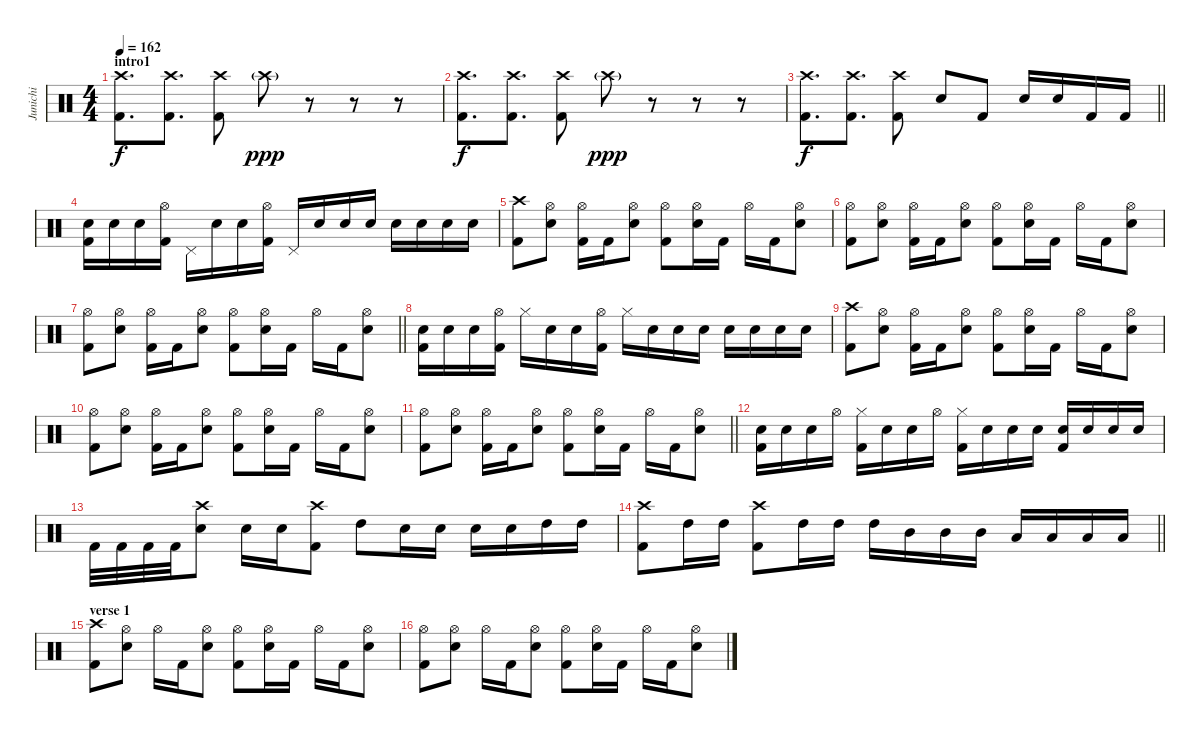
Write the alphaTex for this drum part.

\track ("Junichi" "Junichi") {instrument percussion}
\staff {score}
\articulation defaults
\ts (4 4)
\section ("" "intro1")
\tempo 162
\clef neutral
\ks c
("Crash high (hit)" "Kick (hit) 2").8{d dy f} ("Crash high (hit)" "Kick (hit) 2").8{d} ("Crash high (hit)" "Kick (hit) 2").8 "Crash high (hit)"{g}.8{dy ppp} r.8 r.8 r.8 |
("Crash high (hit)" "Kick (hit) 2").8{d dy f} ("Crash high (hit)" "Kick (hit) 2").8{d} ("Crash high (hit)" "Kick (hit) 2").8 "Crash high (hit)"{g}.8{dy ppp} r.8 r.8 r.8 |
\barLineRight lightlight
("Crash high (hit)" "Kick (hit) 2").8{d dy f} ("Crash high (hit)" "Kick (hit) 2").8{d} ("Crash high (hit)" "Kick (hit) 2").8 "Electric Snare (hit)".8 "Kick (hit) 2".8 "Electric Snare (hit)".16 "Electric Snare (hit)".16 "Kick (hit) 2".16 "Kick (hit) 2".16 |
("Electric Snare (hit)" "Kick (hit) 2").16 "Electric Snare (hit)".16 "Electric Snare (hit)".16 ("Hi-Hat (open)" "Kick (hit) 2").16 "Pedal Hi-Hat (hit)".16 "Electric Snare (hit)".16 "Electric Snare (hit)".16 ("Hi-Hat (open)" "Kick (hit) 2").16 "Pedal Hi-Hat (hit)".16 "Electric Snare (hit)".16 "Electric Snare (hit)".16 "Electric Snare (hit)".16 "Electric Snare (hit)".16 "Electric Snare (hit)".16 "Electric Snare (hit)".16 "Electric Snare (hit)".16 |
("Crash high (hit)" "Kick (hit) 2").8 ("Hi-Hat (open)" "Electric Snare (hit)").8 ("Hi-Hat (open)" "Kick (hit) 2").16 "Kick (hit) 2".16 ("Hi-Hat (open)" "Electric Snare (hit)").8 ("Hi-Hat (open)" "Kick (hit) 2").8 ("Hi-Hat (open)" "Electric Snare (hit)").16 "Kick (hit) 2".16 "Hi-Hat (open)".16 "Kick (hit) 2".16 ("Hi-Hat (open)" "Electric Snare (hit)").8 |
("Hi-Hat (open)" "Kick (hit) 2").8 ("Hi-Hat (open)" "Electric Snare (hit)").8 ("Hi-Hat (open)" "Kick (hit) 2").16 "Kick (hit) 2".16 ("Hi-Hat (open)" "Electric Snare (hit)").8 ("Hi-Hat (open)" "Kick (hit) 2").8 ("Hi-Hat (open)" "Electric Snare (hit)").16 "Kick (hit) 2".16 "Hi-Hat (open)".16 "Kick (hit) 2".16 ("Hi-Hat (open)" "Electric Snare (hit)").8 |
\barLineRight lightlight
("Hi-Hat (open)" "Kick (hit) 2").8 ("Hi-Hat (open)" "Electric Snare (hit)").8 ("Hi-Hat (open)" "Kick (hit) 2").16 "Kick (hit) 2".16 ("Hi-Hat (open)" "Electric Snare (hit)").8 ("Hi-Hat (open)" "Kick (hit) 2").8 ("Hi-Hat (open)" "Electric Snare (hit)").16 "Kick (hit) 2".16 "Hi-Hat (open)".16 "Kick (hit) 2".16 ("Hi-Hat (open)" "Electric Snare (hit)").8 |
("Electric Snare (hit)" "Kick (hit) 2").16 "Electric Snare (hit)".16 "Electric Snare (hit)".16 ("Hi-Hat (open)" "Kick (hit) 2").16 "Hi-Hat (closed)".16 "Electric Snare (hit)".16 "Electric Snare (hit)".16 ("Hi-Hat (open)" "Kick (hit) 2").16 "Hi-Hat (closed)".16 "Electric Snare (hit)".16 "Electric Snare (hit)".16 "Electric Snare (hit)".16 "Electric Snare (hit)".16 "Electric Snare (hit)".16 "Electric Snare (hit)".16 "Electric Snare (hit)".16 |
("Crash high (hit)" "Kick (hit) 2").8 ("Hi-Hat (open)" "Electric Snare (hit)").8 ("Hi-Hat (open)" "Kick (hit) 2").16 "Kick (hit) 2".16 ("Hi-Hat (open)" "Electric Snare (hit)").8 ("Hi-Hat (open)" "Kick (hit) 2").8 ("Hi-Hat (open)" "Electric Snare (hit)").16 "Kick (hit) 2".16 "Hi-Hat (open)".16 "Kick (hit) 2".16 ("Hi-Hat (open)" "Electric Snare (hit)").8 |
("Hi-Hat (open)" "Kick (hit) 2").8 ("Hi-Hat (open)" "Electric Snare (hit)").8 ("Hi-Hat (open)" "Kick (hit) 2").16 "Kick (hit) 2".16 ("Hi-Hat (open)" "Electric Snare (hit)").8 ("Hi-Hat (open)" "Kick (hit) 2").8 ("Hi-Hat (open)" "Electric Snare (hit)").16 "Kick (hit) 2".16 "Hi-Hat (open)".16 "Kick (hit) 2".16 ("Hi-Hat (open)" "Electric Snare (hit)").8 |
\barLineRight lightlight
("Hi-Hat (open)" "Kick (hit) 2").8 ("Hi-Hat (open)" "Electric Snare (hit)").8 ("Hi-Hat (open)" "Kick (hit) 2").16 "Kick (hit) 2".16 ("Hi-Hat (open)" "Electric Snare (hit)").8 ("Hi-Hat (open)" "Kick (hit) 2").8 ("Hi-Hat (open)" "Electric Snare (hit)").16 "Kick (hit) 2".16 "Hi-Hat (open)".16 "Kick (hit) 2".16 ("Hi-Hat (open)" "Electric Snare (hit)").8 |
("Electric Snare (hit)" "Kick (hit) 2").16 "Electric Snare (hit)".16 "Electric Snare (hit)".16 "Hi-Hat (open)".16 ("Hi-Hat (closed)" "Kick (hit) 2").16 "Electric Snare (hit)".16 "Electric Snare (hit)".16 "Hi-Hat (open)".16 ("Hi-Hat (closed)" "Kick (hit) 2").16 "Electric Snare (hit)".16 "Electric Snare (hit)".16 "Electric Snare (hit)".16 ("Electric Snare (hit)" "Kick (hit) 2").16 "Electric Snare (hit)".16 "Electric Snare (hit)".16 "Electric Snare (hit)".16 |
"Kick (hit) 2".32 "Kick (hit) 2".32 "Kick (hit) 2".32 "Kick (hit) 2".32 ("Crash high (hit)" "Electric Snare (hit)").8 "Electric Snare (hit)".16 "Electric Snare (hit)".16 ("Crash high (hit)" "Kick (hit) 2").8 "High Tom (hit)".8 "Electric Snare (hit)".16 "Electric Snare (hit)".16 "Electric Snare (hit)".16 "Electric Snare (hit)".16 "High Tom (hit)".16 "High Tom (hit)".16 |
\barLineRight lightlight
("Crash high (hit)" "Kick (hit) 2").8 "High Tom (hit)".16 "High Tom (hit)".16 ("Crash high (hit)" "Kick (hit) 2").8 "High Tom (hit)".16 "High Tom (hit)".16 "High Tom (hit)".16 "Mid Tom (hit)".16 "Mid Tom (hit)".16 "Mid Tom (hit)".16 "Low Tom (hit)".16 "Low Tom (hit)".16 "Low Tom (hit)".16 "Low Tom (hit)".16 |
\section ("" "verse 1")
("Crash high (hit)" "Kick (hit) 2").8 ("Hi-Hat (open)" "Electric Snare (hit)").8 "Hi-Hat (open)".16 "Kick (hit) 2".16 ("Hi-Hat (open)" "Electric Snare (hit)").8 ("Hi-Hat (open)" "Kick (hit) 2").8 ("Hi-Hat (open)" "Electric Snare (hit)").16 "Kick (hit) 2".16 "Hi-Hat (open)".16 "Kick (hit) 2".16 ("Hi-Hat (open)" "Electric Snare (hit)").8 |
("Hi-Hat (open)" "Kick (hit) 2").8 ("Hi-Hat (open)" "Electric Snare (hit)").8 "Hi-Hat (open)".16 "Kick (hit) 2".16 ("Hi-Hat (open)" "Electric Snare (hit)").8 ("Hi-Hat (open)" "Kick (hit) 2").8 ("Hi-Hat (open)" "Electric Snare (hit)").16 "Kick (hit) 2".16 "Hi-Hat (open)".16 "Kick (hit) 2".16 ("Hi-Hat (open)" "Electric Snare (hit)").8
